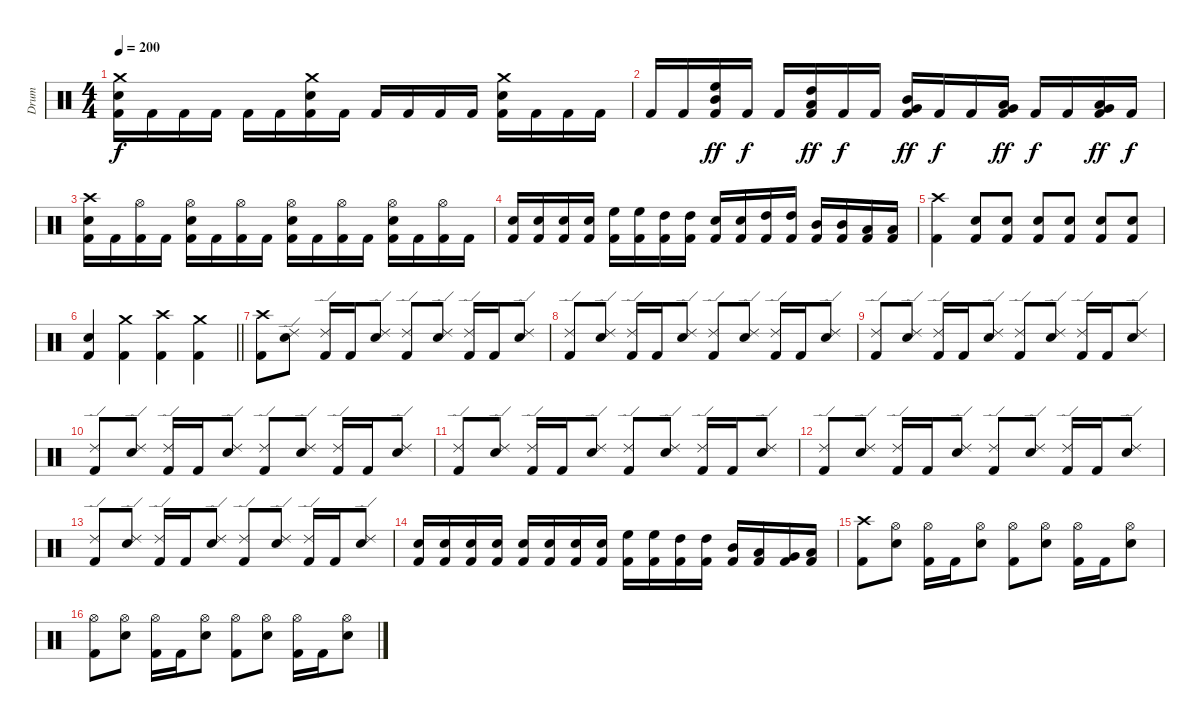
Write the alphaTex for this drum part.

\track ("Drum" "Drum") {instrument percussion}
\staff {score}
\articulation defaults
\ts (4 4)
\tempo 200
\clef neutral
\ks c
("Kick (hit) 2" "Snare (hit) 2" "Crash medium (hit)").16{dy f} "Kick (hit) 2".16 "Kick (hit) 2".16 "Kick (hit) 2".16 "Kick (hit) 2".16 "Kick (hit) 2".16 ("Kick (hit) 2" "Snare (hit) 2" "Crash medium (hit)").16 "Kick (hit) 2".16 "Kick (hit) 2".16 "Kick (hit) 2".16 "Kick (hit) 2".16 "Kick (hit) 2".16 ("Kick (hit) 2" "Snare (hit) 2" "Crash medium (hit)").16 "Kick (hit) 2".16 "Kick (hit) 2".16 "Kick (hit) 2".16 |
"Kick (hit) 2".16 "Kick (hit) 2".16 ("Kick (hit) 2" "High Floor Tom (hit)" "Mid Tom (hit)").16{dy ff} "Kick (hit) 2".16{dy f} "Kick (hit) 2".16 ("Kick (hit) 2" "High Tom (hit)" "Low Tom (hit)").16{dy ff} "Kick (hit) 2".16{dy f} "Kick (hit) 2".16 ("Kick (hit) 2" "Mid Tom (hit)" "Very Low Tom (hit)").16{dy ff} "Kick (hit) 2".16{dy f} "Kick (hit) 2".16 ("Kick (hit) 2" "Low Tom (hit)" "Very Low Tom (hit)").16{dy ff} "Kick (hit) 2".16{dy f} "Kick (hit) 2".16 ("Kick (hit) 2" "Very Low Tom (hit)" "Low Floor Tom (hit)").16{dy ff} "Kick (hit) 2".16{dy f} |
("Kick (hit) 2" "Snare (hit) 2" "Crash high (hit)").16 "Kick (hit) 2".16 ("Kick (hit) 2" "Hi-Hat (open)").16 "Kick (hit) 2".16 ("Kick (hit) 2" "Snare (hit) 2" "Hi-Hat (open)").16 "Kick (hit) 2".16 ("Kick (hit) 2" "Hi-Hat (open)").16 "Kick (hit) 2".16 ("Kick (hit) 2" "Snare (hit) 2" "Hi-Hat (open)").16 "Kick (hit) 2".16 ("Kick (hit) 2" "Hi-Hat (open)").16 "Kick (hit) 2".16 ("Kick (hit) 2" "Snare (hit) 2" "Hi-Hat (open)").16 "Kick (hit) 2".16 ("Kick (hit) 2" "Hi-Hat (open)").16 "Kick (hit) 2".16 |
("Kick (hit) 2" "Snare (hit) 2").16 ("Kick (hit) 2" "Snare (hit) 2").16 ("Kick (hit) 2" "Snare (hit) 2").16 ("Kick (hit) 2" "Snare (hit) 2").16 ("Kick (hit) 2" "High Floor Tom (hit)").16 ("Kick (hit) 2" "High Floor Tom (hit)").16 ("Kick (hit) 2" "High Tom (hit)").16 ("Kick (hit) 2" "High Tom (hit)").16 ("Kick (hit) 2" "Snare (hit) 2").16 ("Kick (hit) 2" "Snare (hit) 2").16 ("Kick (hit) 2" "High Tom (hit)").16 ("Kick (hit) 2" "High Tom (hit)").16 ("Kick (hit) 2" "Mid Tom (hit)").16 ("Kick (hit) 2" "Mid Tom (hit)").16 ("Kick (hit) 2" "Low Tom (hit)").16 ("Kick (hit) 2" "Low Tom (hit)").16 |
("Kick (hit) 2" "Crash high (hit)").4 ("Kick (hit) 2" "Snare (hit) 2").8 ("Kick (hit) 2" "Snare (hit) 2").8 ("Kick (hit) 2" "Snare (hit) 2").8 ("Kick (hit) 2" "Snare (hit) 2").8 ("Kick (hit) 2" "Snare (hit) 2").8 ("Kick (hit) 2" "Snare (hit) 2").8 |
\barLineRight lightlight
("Kick (hit) 2" "Snare (hit) 2").4 ("Kick (hit) 2" "Crash medium (hit)").4 ("Kick (hit) 2" "Crash high (hit)").4 ("Kick (hit) 2" "Crash medium (hit)").4 |
\section ("" "")
("Kick (hit) 2" "Crash high (hit)").8 ("Snare (hit) 2" "Ride (edge) 2").8 ("Kick (hit) 2" "Ride (edge) 2").16 "Kick (hit) 2".16 ("Snare (hit) 2" "Ride (edge) 2").8 ("Kick (hit) 2" "Ride (edge) 2").8 ("Snare (hit) 2" "Ride (edge) 2").8 ("Kick (hit) 2" "Ride (edge) 2").16 "Kick (hit) 2".16 ("Snare (hit) 2" "Ride (edge) 2").8 |
("Kick (hit) 2" "Ride (edge) 2").8 ("Snare (hit) 2" "Ride (edge) 2").8 ("Kick (hit) 2" "Ride (edge) 2").16 "Kick (hit) 2".16 ("Snare (hit) 2" "Ride (edge) 2").8 ("Kick (hit) 2" "Ride (edge) 2").8 ("Snare (hit) 2" "Ride (edge) 2").8 ("Kick (hit) 2" "Ride (edge) 2").16 "Kick (hit) 2".16 ("Snare (hit) 2" "Ride (edge) 2").8 |
("Kick (hit) 2" "Ride (edge) 2").8 ("Snare (hit) 2" "Ride (edge) 2").8 ("Kick (hit) 2" "Ride (edge) 2").16 "Kick (hit) 2".16 ("Snare (hit) 2" "Ride (edge) 2").8 ("Kick (hit) 2" "Ride (edge) 2").8 ("Snare (hit) 2" "Ride (edge) 2").8 ("Kick (hit) 2" "Ride (edge) 2").16 "Kick (hit) 2".16 ("Snare (hit) 2" "Ride (edge) 2").8 |
("Kick (hit) 2" "Ride (edge) 2").8 ("Snare (hit) 2" "Ride (edge) 2").8 ("Kick (hit) 2" "Ride (edge) 2").16 "Kick (hit) 2".16 ("Snare (hit) 2" "Ride (edge) 2").8 ("Kick (hit) 2" "Ride (edge) 2").8 ("Snare (hit) 2" "Ride (edge) 2").8 ("Kick (hit) 2" "Ride (edge) 2").16 "Kick (hit) 2".16 ("Snare (hit) 2" "Ride (edge) 2").8 |
("Kick (hit) 2" "Ride (edge) 2").8 ("Snare (hit) 2" "Ride (edge) 2").8 ("Kick (hit) 2" "Ride (edge) 2").16 "Kick (hit) 2".16 ("Snare (hit) 2" "Ride (edge) 2").8 ("Kick (hit) 2" "Ride (edge) 2").8 ("Snare (hit) 2" "Ride (edge) 2").8 ("Kick (hit) 2" "Ride (edge) 2").16 "Kick (hit) 2".16 ("Snare (hit) 2" "Ride (edge) 2").8 |
("Kick (hit) 2" "Ride (edge) 2").8 ("Snare (hit) 2" "Ride (edge) 2").8 ("Kick (hit) 2" "Ride (edge) 2").16 "Kick (hit) 2".16 ("Snare (hit) 2" "Ride (edge) 2").8 ("Kick (hit) 2" "Ride (edge) 2").8 ("Snare (hit) 2" "Ride (edge) 2").8 ("Kick (hit) 2" "Ride (edge) 2").16 "Kick (hit) 2".16 ("Snare (hit) 2" "Ride (edge) 2").8 |
("Kick (hit) 2" "Ride (edge) 2").8 ("Snare (hit) 2" "Ride (edge) 2").8 ("Kick (hit) 2" "Ride (edge) 2").16 "Kick (hit) 2".16 ("Snare (hit) 2" "Ride (edge) 2").8 ("Kick (hit) 2" "Ride (edge) 2").8 ("Snare (hit) 2" "Ride (edge) 2").8 ("Kick (hit) 2" "Ride (edge) 2").16 "Kick (hit) 2".16 ("Snare (hit) 2" "Ride (edge) 2").8 |
("Kick (hit) 2" "Snare (hit) 2").16 ("Kick (hit) 2" "Snare (hit) 2").16 ("Kick (hit) 2" "Snare (hit) 2").16 ("Kick (hit) 2" "Snare (hit) 2").16 ("Kick (hit) 2" "Snare (hit) 2").16 ("Kick (hit) 2" "Snare (hit) 2").16 ("Kick (hit) 2" "Snare (hit) 2").16 ("Kick (hit) 2" "Snare (hit) 2").16 ("Kick (hit) 2" "High Floor Tom (hit)").16 ("Kick (hit) 2" "High Floor Tom (hit)").16 ("Kick (hit) 2" "High Tom (hit)").16 ("Kick (hit) 2" "High Tom (hit)").16 ("Kick (hit) 2" "Mid Tom (hit)").16 ("Kick (hit) 2" "Low Tom (hit)").16 ("Kick (hit) 2" "Very Low Tom (hit)").16 ("Kick (hit) 2" "Low Floor Tom (hit)").16 |
("Kick (hit) 2" "Crash high (hit)").8 ("Snare (hit) 2" "Hi-Hat (open)").8 ("Kick (hit) 2" "Hi-Hat (open)").16 "Kick (hit) 2".16 ("Snare (hit) 2" "Hi-Hat (open)").8 ("Kick (hit) 2" "Hi-Hat (open)").8 ("Snare (hit) 2" "Hi-Hat (open)").8 ("Kick (hit) 2" "Hi-Hat (open)").16 "Kick (hit) 2".16 ("Snare (hit) 2" "Hi-Hat (open)").8 |
("Kick (hit) 2" "Hi-Hat (open)").8 ("Snare (hit) 2" "Hi-Hat (open)").8 ("Kick (hit) 2" "Hi-Hat (open)").16 "Kick (hit) 2".16 ("Snare (hit) 2" "Hi-Hat (open)").8 ("Kick (hit) 2" "Hi-Hat (open)").8 ("Snare (hit) 2" "Hi-Hat (open)").8 ("Kick (hit) 2" "Hi-Hat (open)").16 "Kick (hit) 2".16 ("Snare (hit) 2" "Hi-Hat (open)").8
